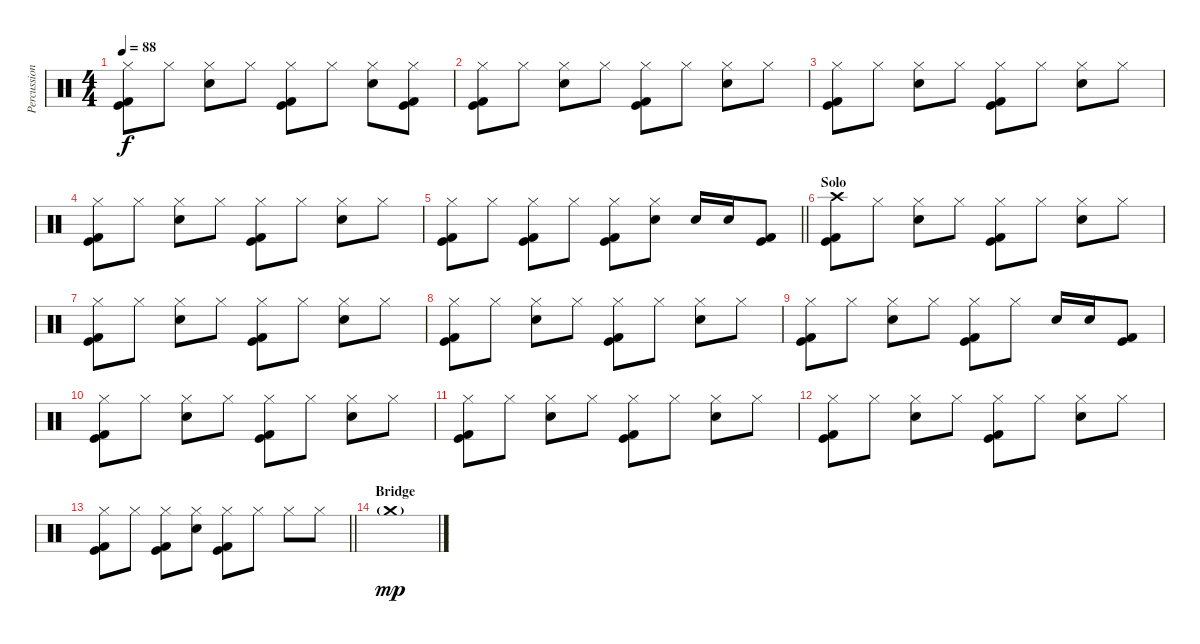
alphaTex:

\track ("Percussion" "Percussion") {instrument percussion}
\staff {score}
\articulation defaults
\ts (4 4)
\tempo 88
\clef neutral
\ks c
("Hi-Hat (closed)" "Kick (hit)" "Kick (hit) 2").8{dy f} "Hi-Hat (closed)".8 ("Hi-Hat (closed)" "Electric Snare (hit)").8 "Hi-Hat (closed)".8 ("Hi-Hat (closed)" "Kick (hit)" "Kick (hit) 2").8 "Hi-Hat (closed)".8 ("Hi-Hat (closed)" "Electric Snare (hit)").8 ("Hi-Hat (closed)" "Kick (hit)" "Kick (hit) 2").8 |
("Hi-Hat (closed)" "Kick (hit)" "Kick (hit) 2").8 "Hi-Hat (closed)".8 ("Hi-Hat (closed)" "Electric Snare (hit)").8 "Hi-Hat (closed)".8 ("Hi-Hat (closed)" "Kick (hit)" "Kick (hit) 2").8 "Hi-Hat (closed)".8 ("Hi-Hat (closed)" "Electric Snare (hit)").8 "Hi-Hat (closed)".8 |
("Hi-Hat (closed)" "Kick (hit)" "Kick (hit) 2").8 "Hi-Hat (closed)".8 ("Hi-Hat (closed)" "Electric Snare (hit)").8 "Hi-Hat (closed)".8 ("Hi-Hat (closed)" "Kick (hit)" "Kick (hit) 2").8 "Hi-Hat (closed)".8 ("Hi-Hat (closed)" "Electric Snare (hit)").8 "Hi-Hat (closed)".8 |
("Hi-Hat (closed)" "Kick (hit)" "Kick (hit) 2").8 "Hi-Hat (closed)".8 ("Hi-Hat (closed)" "Electric Snare (hit)").8 "Hi-Hat (closed)".8 ("Hi-Hat (closed)" "Kick (hit)" "Kick (hit) 2").8 "Hi-Hat (closed)".8 ("Hi-Hat (closed)" "Electric Snare (hit)").8 "Hi-Hat (closed)".8 |
\barLineRight lightlight
("Hi-Hat (closed)" "Kick (hit)" "Kick (hit) 2").8 "Hi-Hat (closed)".8 ("Hi-Hat (closed)" "Kick (hit)" "Kick (hit) 2").8 "Hi-Hat (closed)".8 ("Hi-Hat (closed)" "Kick (hit)" "Kick (hit) 2").8 ("Hi-Hat (closed)" "Electric Snare (hit)").8 "Electric Snare (hit)".16 "Electric Snare (hit)".16 ("Kick (hit)" "Kick (hit) 2").8 |
\section ("" "Solo")
("Crash high (hit)" "Kick (hit)" "Kick (hit) 2").8 "Hi-Hat (closed)".8 ("Hi-Hat (closed)" "Electric Snare (hit)").8 "Hi-Hat (closed)".8 ("Hi-Hat (closed)" "Kick (hit)" "Kick (hit) 2").8 "Hi-Hat (closed)".8 ("Hi-Hat (closed)" "Electric Snare (hit)").8 "Hi-Hat (closed)".8 |
("Hi-Hat (closed)" "Kick (hit)" "Kick (hit) 2").8 "Hi-Hat (closed)".8 ("Hi-Hat (closed)" "Electric Snare (hit)").8 "Hi-Hat (closed)".8 ("Hi-Hat (closed)" "Kick (hit)" "Kick (hit) 2").8 "Hi-Hat (closed)".8 ("Hi-Hat (closed)" "Electric Snare (hit)").8 "Hi-Hat (closed)".8 |
("Hi-Hat (closed)" "Kick (hit)" "Kick (hit) 2").8 "Hi-Hat (closed)".8 ("Hi-Hat (closed)" "Electric Snare (hit)").8 "Hi-Hat (closed)".8 ("Hi-Hat (closed)" "Kick (hit)" "Kick (hit) 2").8 "Hi-Hat (closed)".8 ("Hi-Hat (closed)" "Electric Snare (hit)").8 "Hi-Hat (closed)".8 |
("Hi-Hat (closed)" "Kick (hit)" "Kick (hit) 2").8 "Hi-Hat (closed)".8 ("Hi-Hat (closed)" "Electric Snare (hit)").8 "Hi-Hat (closed)".8 ("Hi-Hat (closed)" "Kick (hit)" "Kick (hit) 2").8 "Hi-Hat (closed)".8 "Electric Snare (hit)".16 "Electric Snare (hit)".16 ("Kick (hit)" "Kick (hit) 2").8 |
("Hi-Hat (closed)" "Kick (hit)" "Kick (hit) 2").8 "Hi-Hat (closed)".8 ("Hi-Hat (closed)" "Electric Snare (hit)").8 "Hi-Hat (closed)".8 ("Hi-Hat (closed)" "Kick (hit)" "Kick (hit) 2").8 "Hi-Hat (closed)".8 ("Hi-Hat (closed)" "Electric Snare (hit)").8 "Hi-Hat (closed)".8 |
("Hi-Hat (closed)" "Kick (hit)" "Kick (hit) 2").8 "Hi-Hat (closed)".8 ("Hi-Hat (closed)" "Electric Snare (hit)").8 "Hi-Hat (closed)".8 ("Hi-Hat (closed)" "Kick (hit)" "Kick (hit) 2").8 "Hi-Hat (closed)".8 ("Hi-Hat (closed)" "Electric Snare (hit)").8 "Hi-Hat (closed)".8 |
("Hi-Hat (closed)" "Kick (hit)" "Kick (hit) 2").8 "Hi-Hat (closed)".8 ("Hi-Hat (closed)" "Electric Snare (hit)").8 "Hi-Hat (closed)".8 ("Hi-Hat (closed)" "Kick (hit)" "Kick (hit) 2").8 "Hi-Hat (closed)".8 ("Hi-Hat (closed)" "Electric Snare (hit)").8 "Hi-Hat (closed)".8 |
\barLineRight lightlight
("Hi-Hat (closed)" "Kick (hit)" "Kick (hit) 2").8 "Hi-Hat (closed)".8 ("Hi-Hat (closed)" "Kick (hit)" "Kick (hit) 2").8 ("Hi-Hat (closed)" "Electric Snare (hit)").8 ("Hi-Hat (closed)" "Kick (hit)" "Kick (hit) 2").8 "Hi-Hat (closed)".8 "Hi-Hat (closed)".8 "Hi-Hat (closed)".8 |
\section ("" "Bridge")
"Crash medium (hit)"{g}.1{dy mp}
